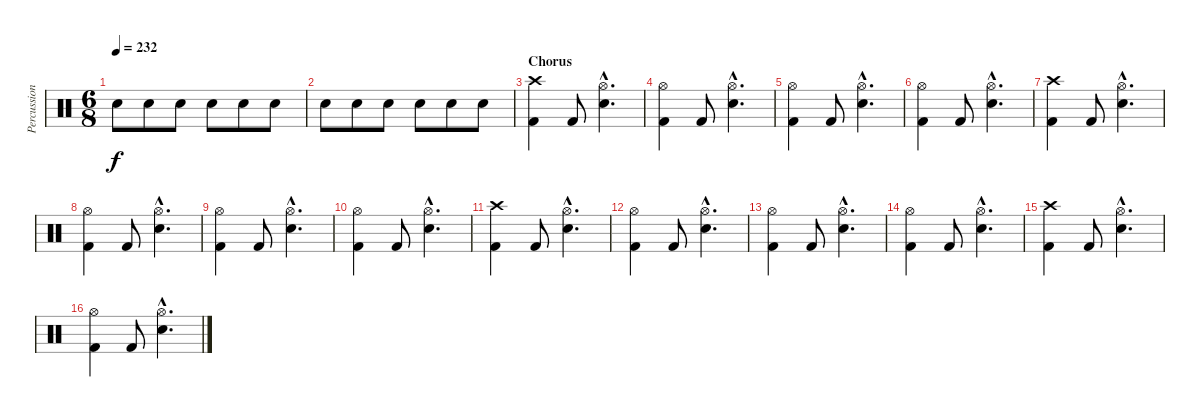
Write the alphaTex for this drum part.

\track ("Percussion" "Percussion") {instrument percussion}
\staff {score}
\articulation defaults
\ts (6 8)
\tempo 232
\clef neutral
\ks c "Electric Snare (hit)".8{dy f} "Electric Snare (hit)".8 "Electric Snare (hit)".8 "Electric Snare (hit)".8 "Electric Snare (hit)".8 "Electric Snare (hit)".8
|
"Electric Snare (hit)".8 "Electric Snare (hit)".8 "Electric Snare (hit)".8 "Electric Snare (hit)".8 "Electric Snare (hit)".8 "Electric Snare (hit)".8 |
\section ("" "Chorus")
("Crash high (hit)" "Kick (hit) 2").4 "Kick (hit) 2".8 ("Hi-Hat (open)"{hac} "Electric Snare (hit)"{hac}).4{d} |
("Hi-Hat (open)" "Kick (hit) 2").4 "Kick (hit) 2".8 ("Hi-Hat (open)"{hac} "Electric Snare (hit)"{hac}).4{d} |
("Hi-Hat (open)" "Kick (hit) 2").4 "Kick (hit) 2".8 ("Hi-Hat (open)"{hac} "Electric Snare (hit)"{hac}).4{d} |
("Hi-Hat (open)" "Kick (hit) 2").4 "Kick (hit) 2".8 ("Hi-Hat (open)"{hac} "Electric Snare (hit)"{hac}).4{d} |
("Crash high (hit)" "Kick (hit) 2").4 "Kick (hit) 2".8 ("Hi-Hat (open)"{hac} "Electric Snare (hit)"{hac}).4{d} |
("Hi-Hat (open)" "Kick (hit) 2").4 "Kick (hit) 2".8 ("Hi-Hat (open)"{hac} "Electric Snare (hit)"{hac}).4{d} |
("Hi-Hat (open)" "Kick (hit) 2").4 "Kick (hit) 2".8 ("Hi-Hat (open)"{hac} "Electric Snare (hit)"{hac}).4{d} |
("Hi-Hat (open)" "Kick (hit) 2").4 "Kick (hit) 2".8 ("Hi-Hat (open)"{hac} "Electric Snare (hit)"{hac}).4{d} |
("Crash high (hit)" "Kick (hit) 2").4 "Kick (hit) 2".8 ("Hi-Hat (open)"{hac} "Electric Snare (hit)"{hac}).4{d} |
("Hi-Hat (open)" "Kick (hit) 2").4 "Kick (hit) 2".8 ("Hi-Hat (open)"{hac} "Electric Snare (hit)"{hac}).4{d} |
("Hi-Hat (open)" "Kick (hit) 2").4 "Kick (hit) 2".8 ("Hi-Hat (open)"{hac} "Electric Snare (hit)"{hac}).4{d} |
("Hi-Hat (open)" "Kick (hit) 2").4 "Kick (hit) 2".8 ("Hi-Hat (open)"{hac} "Electric Snare (hit)"{hac}).4{d} |
("Crash high (hit)" "Kick (hit) 2").4 "Kick (hit) 2".8 ("Hi-Hat (open)"{hac} "Electric Snare (hit)"{hac}).4{d} |
("Hi-Hat (open)" "Kick (hit) 2").4 "Kick (hit) 2".8 ("Hi-Hat (open)"{hac} "Electric Snare (hit)"{hac}).4{d}
